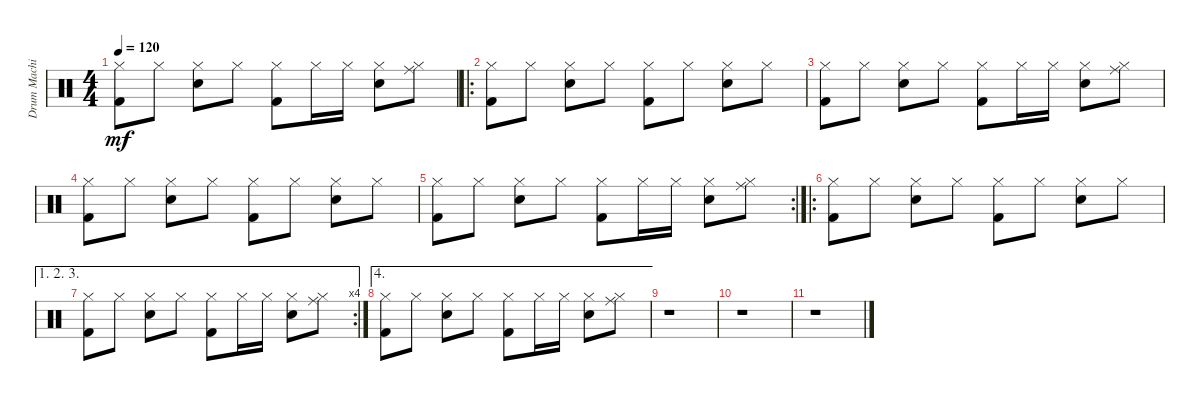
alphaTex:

\track ("Drum Machine" "Drum Machi") {instrument percussion}
\staff {score}
\articulation defaults
\ts (4 4)
\tempo 120
\clef neutral
\ks c
("Hi-Hat (closed)" "Kick (hit) 2").8{dy mf} "Hi-Hat (closed)".8 ("Hi-Hat (closed)" "Snare (hit) 2").8 "Hi-Hat (closed)".8 ("Hi-Hat (closed)" "Kick (hit) 2").8 "Hi-Hat (closed)".16 "Hi-Hat (closed)".16 ("Hi-Hat (closed)" "Snare (hit) 2").8 ("Hi-Hat (closed)" "Ride (middle)").8 |
\ro
("Hi-Hat (closed)" "Kick (hit) 2").8 "Hi-Hat (closed)".8 ("Hi-Hat (closed)" "Snare (hit) 2").8 "Hi-Hat (closed)".8 ("Hi-Hat (closed)" "Kick (hit) 2").8 "Hi-Hat (closed)".8 ("Hi-Hat (closed)" "Snare (hit) 2").8 "Hi-Hat (closed)".8 |
("Hi-Hat (closed)" "Kick (hit) 2").8 "Hi-Hat (closed)".8 ("Hi-Hat (closed)" "Snare (hit) 2").8 "Hi-Hat (closed)".8 ("Hi-Hat (closed)" "Kick (hit) 2").8 "Hi-Hat (closed)".16 "Hi-Hat (closed)".16 ("Hi-Hat (closed)" "Snare (hit) 2").8 ("Hi-Hat (closed)" "Ride (middle)").8 |
("Hi-Hat (closed)" "Kick (hit) 2").8 "Hi-Hat (closed)".8 ("Hi-Hat (closed)" "Snare (hit) 2").8 "Hi-Hat (closed)".8 ("Hi-Hat (closed)" "Kick (hit) 2").8 "Hi-Hat (closed)".8 ("Hi-Hat (closed)" "Snare (hit) 2").8 "Hi-Hat (closed)".8 |
\rc 2
("Hi-Hat (closed)" "Kick (hit) 2").8 "Hi-Hat (closed)".8 ("Hi-Hat (closed)" "Snare (hit) 2").8 "Hi-Hat (closed)".8 ("Hi-Hat (closed)" "Kick (hit) 2").8 "Hi-Hat (closed)".16 "Hi-Hat (closed)".16 ("Hi-Hat (closed)" "Snare (hit) 2").8 ("Hi-Hat (closed)" "Ride (middle)").8 |
\ro
("Hi-Hat (closed)" "Kick (hit) 2").8 "Hi-Hat (closed)".8 ("Hi-Hat (closed)" "Snare (hit) 2").8 "Hi-Hat (closed)".8 ("Hi-Hat (closed)" "Kick (hit) 2").8 "Hi-Hat (closed)".8 ("Hi-Hat (closed)" "Snare (hit) 2").8 "Hi-Hat (closed)".8 |
\ae (1 2 3)
\rc 4
("Hi-Hat (closed)" "Kick (hit) 2").8 "Hi-Hat (closed)".8 ("Hi-Hat (closed)" "Snare (hit) 2").8 "Hi-Hat (closed)".8 ("Hi-Hat (closed)" "Kick (hit) 2").8 "Hi-Hat (closed)".16 "Hi-Hat (closed)".16 ("Hi-Hat (closed)" "Snare (hit) 2").8 ("Hi-Hat (closed)" "Ride (middle)").8 |
\ae 4
("Hi-Hat (closed)" "Kick (hit) 2").8 "Hi-Hat (closed)".8 ("Hi-Hat (closed)" "Snare (hit) 2").8 "Hi-Hat (closed)".8 ("Hi-Hat (closed)" "Kick (hit) 2").8 "Hi-Hat (closed)".16 "Hi-Hat (closed)".16 ("Hi-Hat (closed)" "Snare (hit) 2").8 ("Hi-Hat (closed)" "Ride (middle)").8 |
r.1 |
r.1 |
r.1
